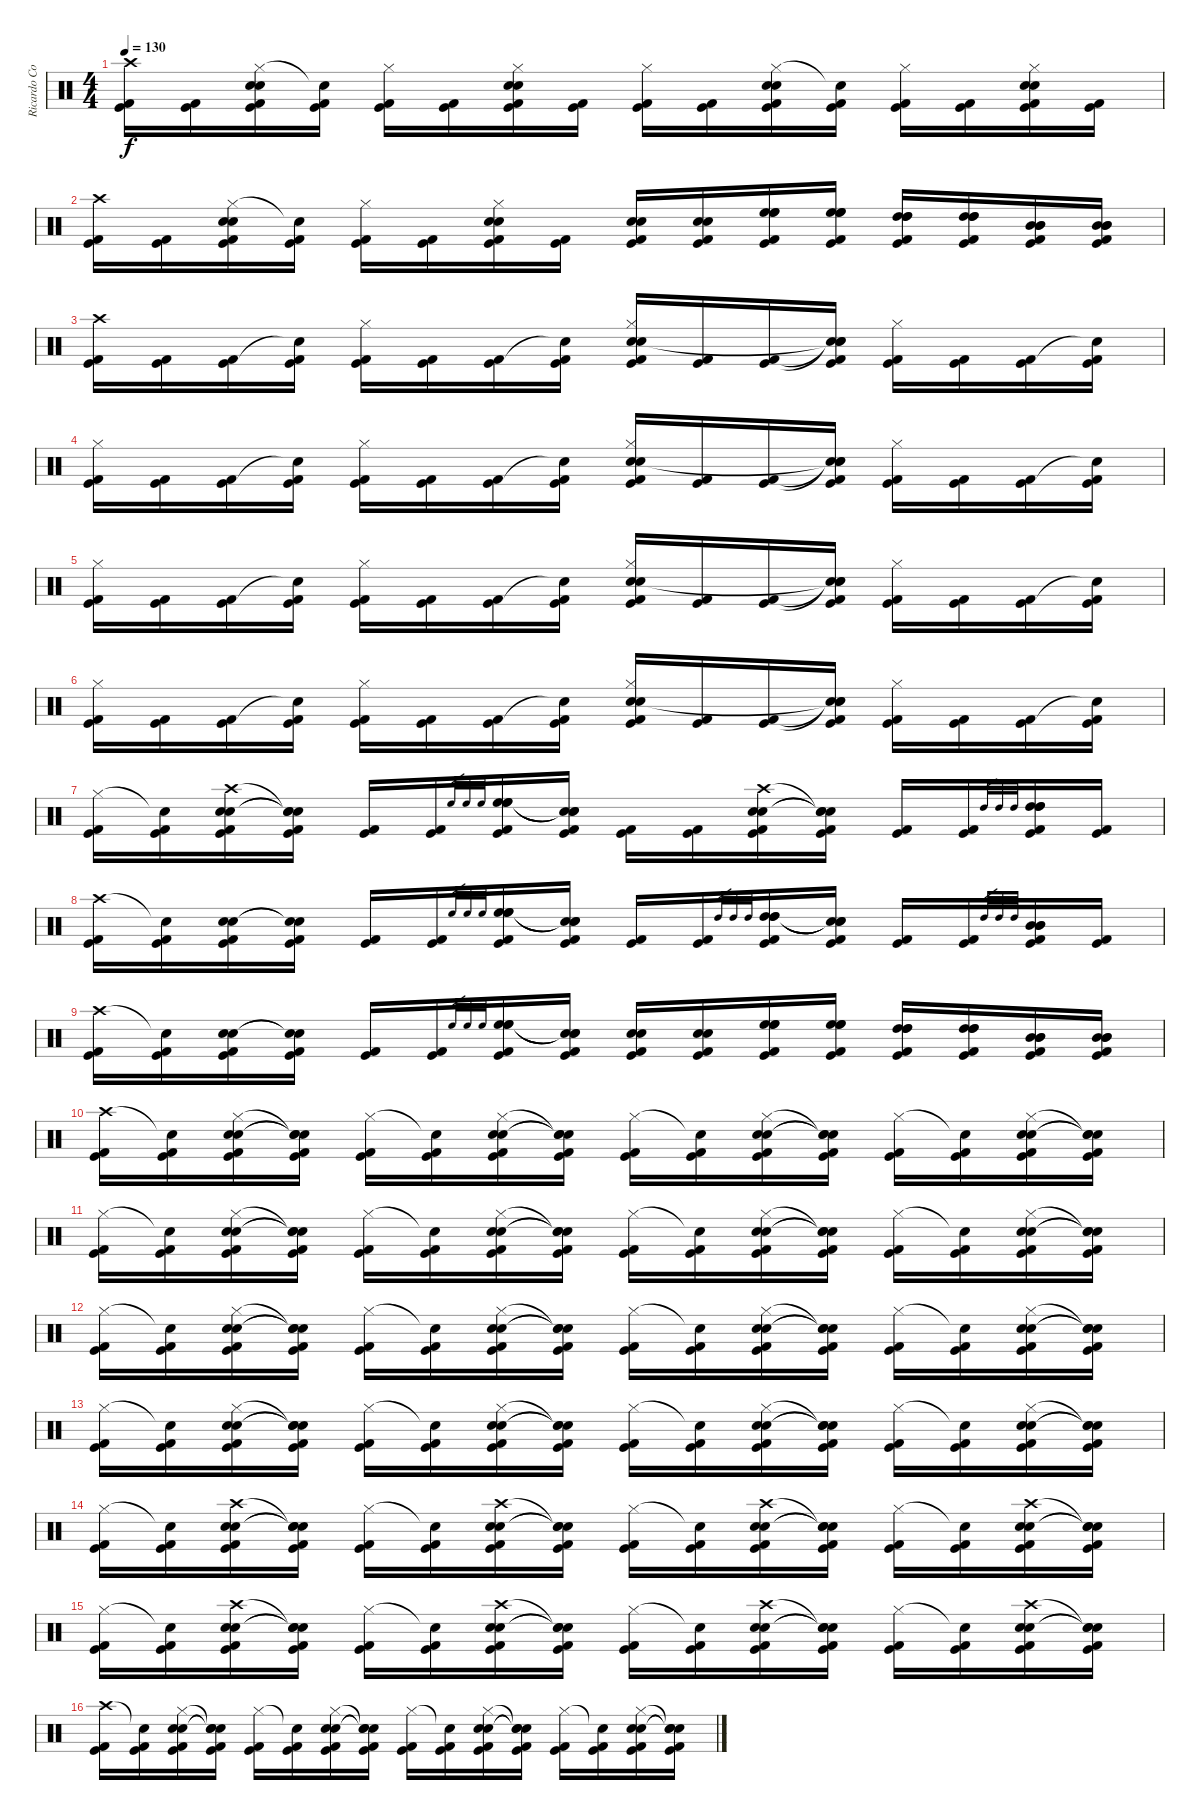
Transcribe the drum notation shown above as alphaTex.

\track ("Ricardo Confessori" "Ricardo Co") {instrument percussion}
\staff {score}
\articulation defaults
\ts (4 4)
\tempo 130
\clef neutral
\ks c
("Crash high (hit)" "Kick (hit)" "Kick (hit) 2").16{dy f} ("Kick (hit)" "Kick (hit) 2").16 ("Hi-Hat (closed)" "Electric Snare (hit)" "Snare (hit) 2" "Kick (hit)" "Kick (hit) 2").16 ("Snare (hit)"{t} "Kick (hit)" "Kick (hit) 2").16 ("Hi-Hat (closed)" "Kick (hit)" "Kick (hit) 2").16 ("Kick (hit)" "Kick (hit) 2").16 ("Hi-Hat (closed)" "Electric Snare (hit)" "Snare (hit) 2" "Kick (hit)" "Kick (hit) 2").16 ("Kick (hit)" "Kick (hit) 2").16 ("Hi-Hat (closed)" "Kick (hit)" "Kick (hit) 2").16 ("Kick (hit)" "Kick (hit) 2").16 ("Hi-Hat (closed)" "Electric Snare (hit)" "Snare (hit) 2" "Kick (hit)" "Kick (hit) 2").16 ("Snare (hit)"{t} "Kick (hit)" "Kick (hit) 2").16 ("Hi-Hat (closed)" "Kick (hit)" "Kick (hit) 2").16 ("Kick (hit)" "Kick (hit) 2").16 ("Hi-Hat (closed)" "Electric Snare (hit)" "Snare (hit) 2" "Kick (hit)" "Kick (hit) 2").16 ("Kick (hit)" "Kick (hit) 2").16 |
("Crash high (hit)" "Kick (hit)" "Kick (hit) 2").16 ("Kick (hit)" "Kick (hit) 2").16 ("Hi-Hat (closed)" "Electric Snare (hit)" "Snare (hit) 2" "Kick (hit)" "Kick (hit) 2").16 ("Snare (hit)"{t} "Kick (hit)" "Kick (hit) 2").16 ("Hi-Hat (closed)" "Kick (hit)" "Kick (hit) 2").16 ("Kick (hit)" "Kick (hit) 2").16 ("Hi-Hat (closed)" "Electric Snare (hit)" "Snare (hit) 2" "Kick (hit)" "Kick (hit) 2").16 ("Kick (hit)" "Kick (hit) 2").16 ("Snare (hit) 2" "Electric Snare (hit)" "Kick (hit)" "Kick (hit) 2").16 ("Electric Snare (hit)" "Snare (hit) 2" "Kick (hit)" "Kick (hit) 2").16 ("High Floor Tom (hit)" "High Floor Tom (hit)" "High Floor Tom (hit)" "Kick (hit)" "Kick (hit) 2").16 ("High Floor Tom (hit)" "High Floor Tom (hit)" "High Floor Tom (hit)" "Kick (hit)" "Kick (hit) 2").16 ("High Tom (hit)" "High Tom (hit)" "High Tom (hit)" "Kick (hit)" "Kick (hit) 2").16 ("High Tom (hit)" "High Tom (hit)" "High Tom (hit)" "Kick (hit)" "Kick (hit) 2").16 ("Mid Tom (hit)" "Mid Tom (hit)" "Mid Tom (hit)" "Kick (hit)" "Kick (hit) 2").16 ("Mid Tom (hit)" "Mid Tom (hit)" "Mid Tom (hit)" "Kick (hit)" "Kick (hit) 2").16 |
("Crash high (hit)" "Kick (hit)" "Kick (hit) 2").16 ("Kick (hit)" "Kick (hit) 2").16 ("Kick (hit)" "Kick (hit) 2").16 ("Snare (hit)"{t} "Kick (hit)" "Kick (hit) 2").16 ("Hi-Hat (closed)" "Kick (hit)" "Kick (hit) 2").16 ("Kick (hit)" "Kick (hit) 2").16 ("Kick (hit)" "Kick (hit) 2").16 ("Snare (hit)"{t} "Kick (hit)" "Kick (hit) 2").16 ("Hi-Hat (closed)" "Electric Snare (hit)" "Snare (hit) 2" "Kick (hit)" "Kick (hit) 2").16 ("Kick (hit)" "Kick (hit) 2").16 ("Kick (hit)" "Kick (hit) 2").16 ("Snare (hit)"{t} "Snare (hit)"{t} "Snare (hit)"{t} "Kick (hit)" "Kick (hit) 2").16 ("Hi-Hat (closed)" "Kick (hit)" "Kick (hit) 2").16 ("Kick (hit)" "Kick (hit) 2").16 ("Kick (hit)" "Kick (hit) 2").16 ("Snare (hit)"{t} "Kick (hit)" "Kick (hit) 2").16 |
("Hi-Hat (closed)" "Kick (hit)" "Kick (hit) 2").16 ("Kick (hit)" "Kick (hit) 2").16 ("Kick (hit)" "Kick (hit) 2").16 ("Snare (hit)"{t} "Kick (hit)" "Kick (hit) 2").16 ("Hi-Hat (closed)" "Kick (hit)" "Kick (hit) 2").16 ("Kick (hit)" "Kick (hit) 2").16 ("Kick (hit)" "Kick (hit) 2").16 ("Snare (hit)"{t} "Kick (hit)" "Kick (hit) 2").16 ("Hi-Hat (closed)" "Electric Snare (hit)" "Snare (hit) 2" "Kick (hit)" "Kick (hit) 2").16 ("Kick (hit)" "Kick (hit) 2").16 ("Kick (hit)" "Kick (hit) 2").16 ("Snare (hit)"{t} "Snare (hit)"{t} "Snare (hit)"{t} "Kick (hit)" "Kick (hit) 2").16 ("Hi-Hat (closed)" "Kick (hit)" "Kick (hit) 2").16 ("Kick (hit)" "Kick (hit) 2").16 ("Kick (hit)" "Kick (hit) 2").16 ("Snare (hit)"{t} "Kick (hit)" "Kick (hit) 2").16 |
("Hi-Hat (closed)" "Kick (hit)" "Kick (hit) 2").16 ("Kick (hit)" "Kick (hit) 2").16 ("Kick (hit)" "Kick (hit) 2").16 ("Snare (hit)"{t} "Kick (hit)" "Kick (hit) 2").16 ("Hi-Hat (closed)" "Kick (hit)" "Kick (hit) 2").16 ("Kick (hit)" "Kick (hit) 2").16 ("Kick (hit)" "Kick (hit) 2").16 ("Snare (hit)"{t} "Kick (hit)" "Kick (hit) 2").16 ("Hi-Hat (closed)" "Electric Snare (hit)" "Snare (hit) 2" "Kick (hit)" "Kick (hit) 2").16 ("Kick (hit)" "Kick (hit) 2").16 ("Kick (hit)" "Kick (hit) 2").16 ("Snare (hit)"{t} "Snare (hit)"{t} "Snare (hit)"{t} "Kick (hit)" "Kick (hit) 2").16 ("Hi-Hat (closed)" "Kick (hit)" "Kick (hit) 2").16 ("Kick (hit)" "Kick (hit) 2").16 ("Kick (hit)" "Kick (hit) 2").16 ("Snare (hit)"{t} "Kick (hit)" "Kick (hit) 2").16 |
("Hi-Hat (closed)" "Kick (hit)" "Kick (hit) 2").16 ("Kick (hit)" "Kick (hit) 2").16 ("Kick (hit)" "Kick (hit) 2").16 ("Snare (hit)"{t} "Kick (hit)" "Kick (hit) 2").16 ("Hi-Hat (closed)" "Kick (hit)" "Kick (hit) 2").16 ("Kick (hit)" "Kick (hit) 2").16 ("Kick (hit)" "Kick (hit) 2").16 ("Snare (hit)"{t} "Kick (hit)" "Kick (hit) 2").16 ("Hi-Hat (closed)" "Electric Snare (hit)" "Snare (hit) 2" "Kick (hit)" "Kick (hit) 2").16 ("Kick (hit)" "Kick (hit) 2").16 ("Kick (hit)" "Kick (hit) 2").16 ("Snare (hit)"{t} "Snare (hit)"{t} "Snare (hit)"{t} "Kick (hit)" "Kick (hit) 2").16 ("Hi-Hat (closed)" "Kick (hit)" "Kick (hit) 2").16 ("Kick (hit)" "Kick (hit) 2").16 ("Kick (hit)" "Kick (hit) 2").16 ("Snare (hit)"{t} "Kick (hit)" "Kick (hit) 2").16 |
("Hi-Hat (closed)" "Kick (hit)" "Kick (hit) 2").16 ("Snare (hit)"{t} "Kick (hit)" "Kick (hit) 2").16 ("Crash high (hit)" "Snare (hit) 2" "Electric Snare (hit)" "Kick (hit)" "Kick (hit) 2").16 ("Snare (hit)"{t} "Snare (hit)"{t} "Snare (hit)"{t} "Kick (hit)" "Kick (hit) 2").16 ("Kick (hit)" "Kick (hit) 2").16 ("Kick (hit)" "Kick (hit) 2").16 "High Floor Tom (hit)".32{gr} "High Floor Tom (hit)".32{gr} "High Floor Tom (hit)".32{gr} ("High Floor Tom (hit)" "High Floor Tom (hit)" "High Floor Tom (hit)" "Kick (hit)" "Kick (hit) 2").16 ("Snare (hit)"{t} "Snare (hit)"{t} "Snare (hit)"{t} "Kick (hit)" "Kick (hit) 2").16 ("Kick (hit)" "Kick (hit) 2").16 ("Kick (hit)" "Kick (hit) 2").16 ("Crash high (hit)" "Electric Snare (hit)" "Snare (hit) 2" "Kick (hit)" "Kick (hit) 2").16 ("Snare (hit)"{t} "Snare (hit)"{t} "Snare (hit)"{t} "Kick (hit)" "Kick (hit) 2").16 ("Kick (hit)" "Kick (hit) 2").16 ("Kick (hit)" "Kick (hit) 2").16 "High Tom (hit)".32{gr} "High Tom (hit)".32{gr} "High Tom (hit)".32{gr} ("High Tom (hit)" "High Tom (hit)" "High Tom (hit)" "Kick (hit)" "Kick (hit) 2").16 ("Kick (hit)" "Kick (hit) 2").16 |
("Crash high (hit)" "Kick (hit)" "Kick (hit) 2").16 ("Snare (hit)"{t} "Kick (hit)" "Kick (hit) 2").16 ("Snare (hit) 2" "Electric Snare (hit)" "Kick (hit)" "Kick (hit) 2").16 ("Snare (hit)"{t} "Snare (hit)"{t} "Kick (hit)" "Kick (hit) 2").16 ("Kick (hit)" "Kick (hit) 2").16 ("Kick (hit)" "Kick (hit) 2").16 "High Floor Tom (hit)".32{gr} "High Floor Tom (hit)".32{gr} "High Floor Tom (hit)".32{gr} ("High Floor Tom (hit)" "High Floor Tom (hit)" "High Floor Tom (hit)" "Kick (hit)" "Kick (hit) 2").16 ("Snare (hit)"{t} "Snare (hit)"{t} "Snare (hit)"{t} "Kick (hit)" "Kick (hit) 2").16 ("Kick (hit)" "Kick (hit) 2").16 ("Kick (hit)" "Kick (hit) 2").16 "High Tom (hit)".32{gr} "High Tom (hit)".32{gr} "High Tom (hit)".32{gr} ("High Tom (hit)" "High Tom (hit)" "High Tom (hit)" "Kick (hit)" "Kick (hit) 2").16 ("Snare (hit)"{t} "Snare (hit)"{t} "Snare (hit)"{t} "Kick (hit)" "Kick (hit) 2").16 ("Kick (hit)" "Kick (hit) 2").16 ("Kick (hit)" "Kick (hit) 2").16 "High Tom (hit)".32{gr} "High Tom (hit)".32{gr} "High Tom (hit)".32{gr} ("Mid Tom (hit)" "Mid Tom (hit)" "Mid Tom (hit)" "Kick (hit)" "Kick (hit) 2").16 ("Kick (hit)" "Kick (hit) 2").16 |
("Crash high (hit)" "Kick (hit)" "Kick (hit) 2").16 ("Snare (hit)"{t} "Kick (hit)" "Kick (hit) 2").16 ("Snare (hit) 2" "Electric Snare (hit)" "Kick (hit)" "Kick (hit) 2").16 ("Snare (hit)"{t} "Snare (hit)"{t} "Kick (hit)" "Kick (hit) 2").16 ("Kick (hit)" "Kick (hit) 2").16 ("Kick (hit)" "Kick (hit) 2").16 "High Floor Tom (hit)".32{gr} "High Floor Tom (hit)".32{gr} "High Floor Tom (hit)".32{gr} ("High Floor Tom (hit)" "High Floor Tom (hit)" "High Floor Tom (hit)" "Kick (hit)" "Kick (hit) 2").16 ("Snare (hit)"{t} "Snare (hit)"{t} "Snare (hit)"{t} "Kick (hit)" "Kick (hit) 2").16 ("Electric Snare (hit)" "Snare (hit) 2" "Kick (hit)" "Kick (hit) 2").16 ("Electric Snare (hit)" "Snare (hit) 2" "Kick (hit)" "Kick (hit) 2").16 ("High Floor Tom (hit)" "High Floor Tom (hit)" "High Floor Tom (hit)" "Kick (hit)" "Kick (hit) 2").16 ("High Floor Tom (hit)" "High Floor Tom (hit)" "High Floor Tom (hit)" "Kick (hit)" "Kick (hit) 2").16 ("High Tom (hit)" "High Tom (hit)" "High Tom (hit)" "Kick (hit)" "Kick (hit) 2").16 ("High Tom (hit)" "High Tom (hit)" "High Tom (hit)" "Kick (hit)" "Kick (hit) 2").16 ("Mid Tom (hit)" "Mid Tom (hit)" "Mid Tom (hit)" "Kick (hit)" "Kick (hit) 2").16 ("Mid Tom (hit)" "Mid Tom (hit)" "Mid Tom (hit)" "Kick (hit)" "Kick (hit) 2").16 |
("Crash high (hit)" "Kick (hit)" "Kick (hit) 2").16 ("Snare (hit)"{t} "Kick (hit)" "Kick (hit) 2").16 ("Hi-Hat (closed)" "Electric Snare (hit)" "Snare (hit) 2" "Kick (hit)" "Kick (hit) 2").16 ("Snare (hit)"{t} "Snare (hit)"{t} "Snare (hit)"{t} "Kick (hit)" "Kick (hit) 2").16 ("Hi-Hat (closed)" "Kick (hit)" "Kick (hit) 2").16 ("Snare (hit)"{t} "Kick (hit)" "Kick (hit) 2").16 ("Hi-Hat (closed)" "Electric Snare (hit)" "Snare (hit) 2" "Kick (hit)" "Kick (hit) 2").16 ("Snare (hit)"{t} "Snare (hit)"{t} "Snare (hit)"{t} "Kick (hit)" "Kick (hit) 2").16 ("Hi-Hat (closed)" "Kick (hit)" "Kick (hit) 2").16 ("Snare (hit)"{t} "Kick (hit)" "Kick (hit) 2").16 ("Hi-Hat (closed)" "Electric Snare (hit)" "Snare (hit) 2" "Kick (hit)" "Kick (hit) 2").16 ("Snare (hit)"{t} "Snare (hit)"{t} "Snare (hit)"{t} "Kick (hit)" "Kick (hit) 2").16 ("Hi-Hat (closed)" "Kick (hit)" "Kick (hit) 2").16 ("Snare (hit)"{t} "Kick (hit)" "Kick (hit) 2").16 ("Hi-Hat (closed)" "Electric Snare (hit)" "Snare (hit) 2" "Kick (hit)" "Kick (hit) 2").16 ("Snare (hit)"{t} "Snare (hit)"{t} "Snare (hit)"{t} "Kick (hit)" "Kick (hit) 2").16 |
("Hi-Hat (closed)" "Kick (hit)" "Kick (hit) 2").16 ("Snare (hit)"{t} "Kick (hit)" "Kick (hit) 2").16 ("Hi-Hat (closed)" "Electric Snare (hit)" "Snare (hit) 2" "Kick (hit)" "Kick (hit) 2").16 ("Snare (hit)"{t} "Snare (hit)"{t} "Snare (hit)"{t} "Kick (hit)" "Kick (hit) 2").16 ("Hi-Hat (closed)" "Kick (hit)" "Kick (hit) 2").16 ("Snare (hit)"{t} "Kick (hit)" "Kick (hit) 2").16 ("Hi-Hat (closed)" "Electric Snare (hit)" "Snare (hit) 2" "Kick (hit)" "Kick (hit) 2").16 ("Snare (hit)"{t} "Snare (hit)"{t} "Snare (hit)"{t} "Kick (hit)" "Kick (hit) 2").16 ("Hi-Hat (closed)" "Kick (hit)" "Kick (hit) 2").16 ("Snare (hit)"{t} "Kick (hit)" "Kick (hit) 2").16 ("Hi-Hat (closed)" "Electric Snare (hit)" "Snare (hit) 2" "Kick (hit)" "Kick (hit) 2").16 ("Snare (hit)"{t} "Snare (hit)"{t} "Snare (hit)"{t} "Kick (hit)" "Kick (hit) 2").16 ("Hi-Hat (closed)" "Kick (hit)" "Kick (hit) 2").16 ("Snare (hit)"{t} "Kick (hit)" "Kick (hit) 2").16 ("Hi-Hat (closed)" "Electric Snare (hit)" "Snare (hit) 2" "Kick (hit)" "Kick (hit) 2").16 ("Snare (hit)"{t} "Snare (hit)"{t} "Snare (hit)"{t} "Kick (hit)" "Kick (hit) 2").16 |
("Hi-Hat (closed)" "Kick (hit)" "Kick (hit) 2").16 ("Snare (hit)"{t} "Kick (hit)" "Kick (hit) 2").16 ("Hi-Hat (closed)" "Electric Snare (hit)" "Snare (hit) 2" "Kick (hit)" "Kick (hit) 2").16 ("Snare (hit)"{t} "Snare (hit)"{t} "Snare (hit)"{t} "Kick (hit)" "Kick (hit) 2").16 ("Hi-Hat (closed)" "Kick (hit)" "Kick (hit) 2").16 ("Snare (hit)"{t} "Kick (hit)" "Kick (hit) 2").16 ("Hi-Hat (closed)" "Electric Snare (hit)" "Snare (hit) 2" "Kick (hit)" "Kick (hit) 2").16 ("Snare (hit)"{t} "Snare (hit)"{t} "Snare (hit)"{t} "Kick (hit)" "Kick (hit) 2").16 ("Hi-Hat (closed)" "Kick (hit)" "Kick (hit) 2").16 ("Snare (hit)"{t} "Kick (hit)" "Kick (hit) 2").16 ("Hi-Hat (closed)" "Electric Snare (hit)" "Snare (hit) 2" "Kick (hit)" "Kick (hit) 2").16 ("Snare (hit)"{t} "Snare (hit)"{t} "Snare (hit)"{t} "Kick (hit)" "Kick (hit) 2").16 ("Hi-Hat (closed)" "Kick (hit)" "Kick (hit) 2").16 ("Snare (hit)"{t} "Kick (hit)" "Kick (hit) 2").16 ("Hi-Hat (closed)" "Electric Snare (hit)" "Snare (hit) 2" "Kick (hit)" "Kick (hit) 2").16 ("Snare (hit)"{t} "Snare (hit)"{t} "Snare (hit)"{t} "Kick (hit)" "Kick (hit) 2").16 |
("Hi-Hat (closed)" "Kick (hit)" "Kick (hit) 2").16 ("Snare (hit)"{t} "Kick (hit)" "Kick (hit) 2").16 ("Hi-Hat (closed)" "Electric Snare (hit)" "Snare (hit) 2" "Kick (hit)" "Kick (hit) 2").16 ("Snare (hit)"{t} "Snare (hit)"{t} "Snare (hit)"{t} "Kick (hit)" "Kick (hit) 2").16 ("Hi-Hat (closed)" "Kick (hit)" "Kick (hit) 2").16 ("Snare (hit)"{t} "Kick (hit)" "Kick (hit) 2").16 ("Hi-Hat (closed)" "Electric Snare (hit)" "Snare (hit) 2" "Kick (hit)" "Kick (hit) 2").16 ("Snare (hit)"{t} "Snare (hit)"{t} "Snare (hit)"{t} "Kick (hit)" "Kick (hit) 2").16 ("Hi-Hat (closed)" "Kick (hit)" "Kick (hit) 2").16 ("Snare (hit)"{t} "Kick (hit)" "Kick (hit) 2").16 ("Hi-Hat (closed)" "Electric Snare (hit)" "Snare (hit) 2" "Kick (hit)" "Kick (hit) 2").16 ("Snare (hit)"{t} "Snare (hit)"{t} "Snare (hit)"{t} "Kick (hit)" "Kick (hit) 2").16 ("Hi-Hat (closed)" "Kick (hit)" "Kick (hit) 2").16 ("Snare (hit)"{t} "Kick (hit)" "Kick (hit) 2").16 ("Hi-Hat (closed)" "Electric Snare (hit)" "Snare (hit) 2" "Kick (hit)" "Kick (hit) 2").16 ("Snare (hit)"{t} "Snare (hit)"{t} "Snare (hit)"{t} "Kick (hit)" "Kick (hit) 2").16 |
("Hi-Hat (closed)" "Kick (hit)" "Kick (hit) 2").16 ("Snare (hit)"{t} "Kick (hit)" "Kick (hit) 2").16 ("Crash high (hit)" "Electric Snare (hit)" "Snare (hit) 2" "Kick (hit)" "Kick (hit) 2").16 ("Snare (hit)"{t} "Snare (hit)"{t} "Snare (hit)"{t} "Kick (hit)" "Kick (hit) 2").16 ("Hi-Hat (closed)" "Kick (hit)" "Kick (hit) 2").16 ("Snare (hit)"{t} "Kick (hit)" "Kick (hit) 2").16 ("Crash high (hit)" "Electric Snare (hit)" "Snare (hit) 2" "Kick (hit)" "Kick (hit) 2").16 ("Snare (hit)"{t} "Snare (hit)"{t} "Snare (hit)"{t} "Kick (hit)" "Kick (hit) 2").16 ("Hi-Hat (closed)" "Kick (hit)" "Kick (hit) 2").16 ("Snare (hit)"{t} "Kick (hit)" "Kick (hit) 2").16 ("Crash high (hit)" "Electric Snare (hit)" "Snare (hit) 2" "Kick (hit)" "Kick (hit) 2").16 ("Snare (hit)"{t} "Snare (hit)"{t} "Snare (hit)"{t} "Kick (hit)" "Kick (hit) 2").16 ("Hi-Hat (closed)" "Kick (hit)" "Kick (hit) 2").16 ("Snare (hit)"{t} "Kick (hit)" "Kick (hit) 2").16 ("Crash high (hit)" "Electric Snare (hit)" "Snare (hit) 2" "Kick (hit)" "Kick (hit) 2").16 ("Snare (hit)"{t} "Snare (hit)"{t} "Snare (hit)"{t} "Kick (hit)" "Kick (hit) 2").16 |
("Hi-Hat (closed)" "Kick (hit)" "Kick (hit) 2").16 ("Snare (hit)"{t} "Kick (hit)" "Kick (hit) 2").16 ("Crash high (hit)" "Electric Snare (hit)" "Snare (hit) 2" "Kick (hit)" "Kick (hit) 2").16 ("Snare (hit)"{t} "Snare (hit)"{t} "Snare (hit)"{t} "Kick (hit)" "Kick (hit) 2").16 ("Hi-Hat (closed)" "Kick (hit)" "Kick (hit) 2").16 ("Snare (hit)"{t} "Kick (hit)" "Kick (hit) 2").16 ("Crash high (hit)" "Electric Snare (hit)" "Snare (hit) 2" "Kick (hit)" "Kick (hit) 2").16 ("Snare (hit)"{t} "Snare (hit)"{t} "Snare (hit)"{t} "Kick (hit)" "Kick (hit) 2").16 ("Hi-Hat (closed)" "Kick (hit)" "Kick (hit) 2").16 ("Snare (hit)"{t} "Kick (hit)" "Kick (hit) 2").16 ("Crash high (hit)" "Electric Snare (hit)" "Snare (hit) 2" "Kick (hit)" "Kick (hit) 2").16 ("Snare (hit)"{t} "Snare (hit)"{t} "Snare (hit)"{t} "Kick (hit)" "Kick (hit) 2").16 ("Hi-Hat (closed)" "Kick (hit)" "Kick (hit) 2").16 ("Snare (hit)"{t} "Kick (hit)" "Kick (hit) 2").16 ("Crash high (hit)" "Electric Snare (hit)" "Snare (hit) 2" "Kick (hit)" "Kick (hit) 2").16 ("Snare (hit)"{t} "Snare (hit)"{t} "Snare (hit)"{t} "Kick (hit)" "Kick (hit) 2").16 |
("Crash high (hit)" "Kick (hit)" "Kick (hit) 2").16 ("Snare (hit)"{t} "Kick (hit)" "Kick (hit) 2").16 ("Hi-Hat (closed)" "Electric Snare (hit)" "Snare (hit) 2" "Kick (hit)" "Kick (hit) 2").16 ("Snare (hit)"{t} "Snare (hit)"{t} "Snare (hit)"{t} "Kick (hit)" "Kick (hit) 2").16 ("Hi-Hat (closed)" "Kick (hit)" "Kick (hit) 2").16 ("Snare (hit)"{t} "Kick (hit)" "Kick (hit) 2").16 ("Hi-Hat (closed)" "Electric Snare (hit)" "Snare (hit) 2" "Kick (hit)" "Kick (hit) 2").16 ("Snare (hit)"{t} "Snare (hit)"{t} "Snare (hit)"{t} "Kick (hit)" "Kick (hit) 2").16 ("Hi-Hat (closed)" "Kick (hit)" "Kick (hit) 2").16 ("Snare (hit)"{t} "Kick (hit)" "Kick (hit) 2").16 ("Hi-Hat (closed)" "Electric Snare (hit)" "Snare (hit) 2" "Kick (hit)" "Kick (hit) 2").16 ("Snare (hit)"{t} "Snare (hit)"{t} "Snare (hit)"{t} "Kick (hit)" "Kick (hit) 2").16 ("Hi-Hat (closed)" "Kick (hit)" "Kick (hit) 2").16 ("Snare (hit)"{t} "Kick (hit)" "Kick (hit) 2").16 ("Hi-Hat (closed)" "Electric Snare (hit)" "Snare (hit) 2" "Kick (hit)" "Kick (hit) 2").16 ("Snare (hit)"{t} "Snare (hit)"{t} "Snare (hit)"{t} "Kick (hit)" "Kick (hit) 2").16
